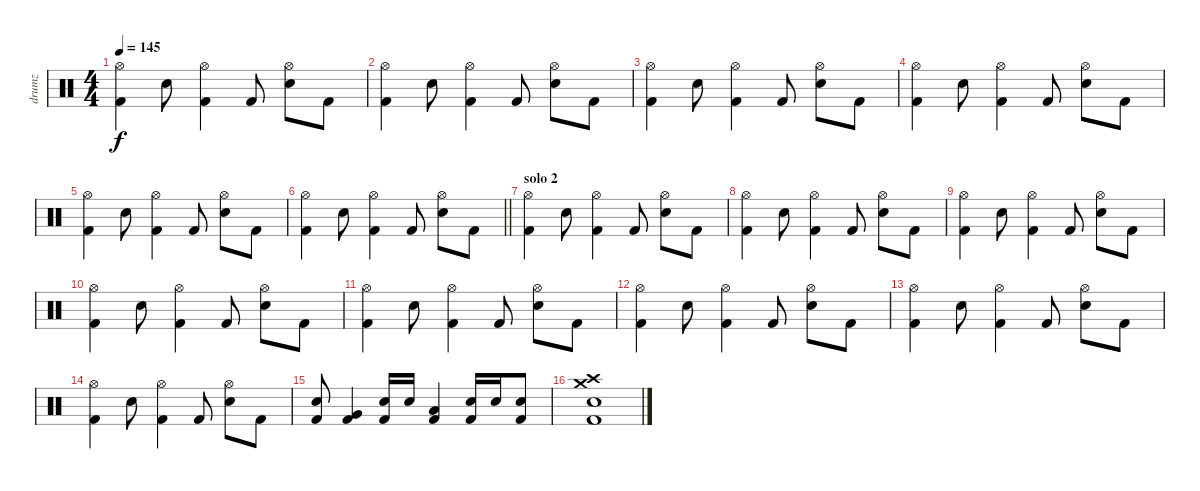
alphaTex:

\track ("drumz" "drumz") {instrument percussion}
\staff {score}
\articulation defaults
\ts (4 4)
\tempo 145
\clef neutral
\ks c
("Hi-Hat (open)" "Kick (hit) 2").4{dy f} "Electric Snare (hit)".8 ("Hi-Hat (open)" "Kick (hit) 2").4 "Kick (hit) 2".8 ("Hi-Hat (open)" "Electric Snare (hit)").8 "Kick (hit) 2".8 |
("Hi-Hat (open)" "Kick (hit) 2").4 "Electric Snare (hit)".8 ("Hi-Hat (open)" "Kick (hit) 2").4 "Kick (hit) 2".8 ("Hi-Hat (open)" "Electric Snare (hit)").8 "Kick (hit) 2".8 |
("Hi-Hat (open)" "Kick (hit) 2").4 "Electric Snare (hit)".8 ("Hi-Hat (open)" "Kick (hit) 2").4 "Kick (hit) 2".8 ("Hi-Hat (open)" "Electric Snare (hit)").8 "Kick (hit) 2".8 |
("Hi-Hat (open)" "Kick (hit) 2").4 "Electric Snare (hit)".8 ("Hi-Hat (open)" "Kick (hit) 2").4 "Kick (hit) 2".8 ("Hi-Hat (open)" "Electric Snare (hit)").8 "Kick (hit) 2".8 |
("Hi-Hat (open)" "Kick (hit) 2").4 "Electric Snare (hit)".8 ("Hi-Hat (open)" "Kick (hit) 2").4 "Kick (hit) 2".8 ("Hi-Hat (open)" "Electric Snare (hit)").8 "Kick (hit) 2".8 |
\barLineRight lightlight
("Hi-Hat (open)" "Kick (hit) 2").4 "Electric Snare (hit)".8 ("Hi-Hat (open)" "Kick (hit) 2").4 "Kick (hit) 2".8 ("Hi-Hat (open)" "Electric Snare (hit)").8 "Kick (hit) 2".8 |
\section ("" "solo 2")
("Hi-Hat (open)" "Kick (hit) 2").4 "Electric Snare (hit)".8 ("Hi-Hat (open)" "Kick (hit) 2").4 "Kick (hit) 2".8 ("Hi-Hat (open)" "Electric Snare (hit)").8 "Kick (hit) 2".8 |
("Hi-Hat (open)" "Kick (hit) 2").4 "Electric Snare (hit)".8 ("Hi-Hat (open)" "Kick (hit) 2").4 "Kick (hit) 2".8 ("Hi-Hat (open)" "Electric Snare (hit)").8 "Kick (hit) 2".8 |
("Hi-Hat (open)" "Kick (hit) 2").4 "Electric Snare (hit)".8 ("Hi-Hat (open)" "Kick (hit) 2").4 "Kick (hit) 2".8 ("Hi-Hat (open)" "Electric Snare (hit)").8 "Kick (hit) 2".8 |
("Hi-Hat (open)" "Kick (hit) 2").4 "Electric Snare (hit)".8 ("Hi-Hat (open)" "Kick (hit) 2").4 "Kick (hit) 2".8 ("Hi-Hat (open)" "Electric Snare (hit)").8 "Kick (hit) 2".8 |
("Hi-Hat (open)" "Kick (hit) 2").4 "Electric Snare (hit)".8 ("Hi-Hat (open)" "Kick (hit) 2").4 "Kick (hit) 2".8 ("Hi-Hat (open)" "Electric Snare (hit)").8 "Kick (hit) 2".8 |
("Hi-Hat (open)" "Kick (hit) 2").4 "Electric Snare (hit)".8 ("Hi-Hat (open)" "Kick (hit) 2").4 "Kick (hit) 2".8 ("Hi-Hat (open)" "Electric Snare (hit)").8 "Kick (hit) 2".8 |
("Hi-Hat (open)" "Kick (hit) 2").4 "Electric Snare (hit)".8 ("Hi-Hat (open)" "Kick (hit) 2").4 "Kick (hit) 2".8 ("Hi-Hat (open)" "Electric Snare (hit)").8 "Kick (hit) 2".8 |
("Hi-Hat (open)" "Kick (hit) 2").4 "Electric Snare (hit)".8 ("Hi-Hat (open)" "Kick (hit) 2").4 "Kick (hit) 2".8 ("Hi-Hat (open)" "Electric Snare (hit)").8 "Kick (hit) 2".8 |
("Electric Snare (hit)" "Kick (hit) 2").8 ("Very Low Tom (hit)" "Kick (hit) 2").4 ("Electric Snare (hit)" "Kick (hit) 2").16 "Electric Snare (hit)".16 ("Low Floor Tom (hit)" "Kick (hit) 2").4 ("Electric Snare (hit)" "Kick (hit) 2").16 "Electric Snare (hit)".16 ("Electric Snare (hit)" "Kick (hit) 2").8 |
("Crash medium (hit)" "Crash high (hit)" "Electric Snare (hit)" "Kick (hit) 2").1
